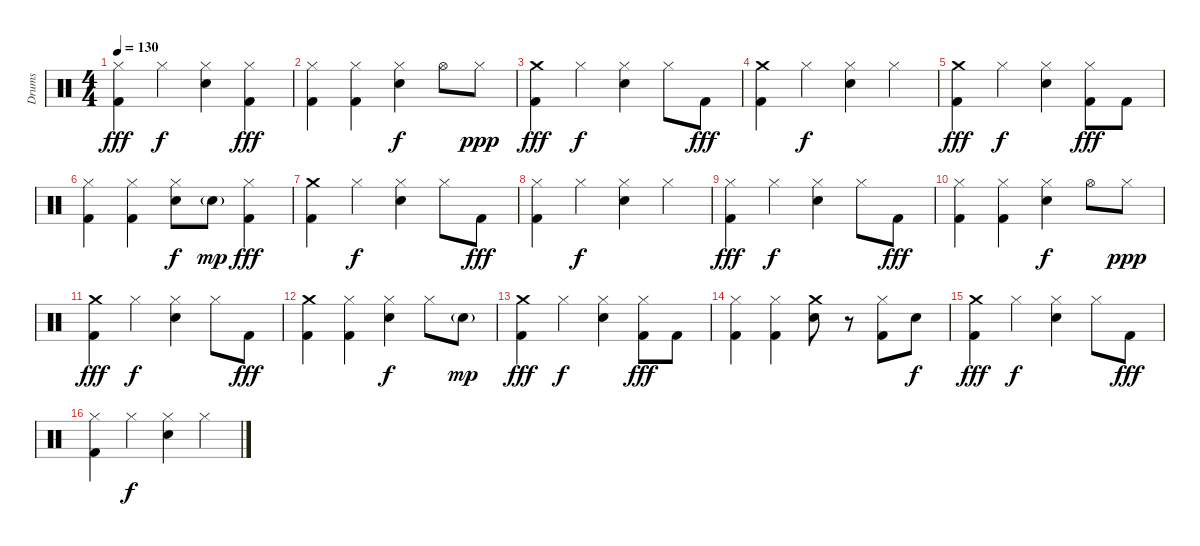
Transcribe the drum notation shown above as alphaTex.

\track ("Drums" "Drums") {instrument percussion}
\staff {score}
\articulation defaults
\ts (4 4)
\tempo 130
\clef neutral
\ks c
("Hi-Hat (closed)" "Kick (hit) 2").4{dy fff} "Hi-Hat (closed)".4{dy f} ("Hi-Hat (closed)" "Electric Snare (hit)").4 ("Hi-Hat (closed)" "Kick (hit) 2").4{dy fff} |
("Hi-Hat (closed)" "Kick (hit) 2").4 ("Hi-Hat (closed)" "Kick (hit) 2").4 ("Hi-Hat (closed)" "Electric Snare (hit)").4{dy f} "Hi-Hat (open)".8 "Hi-Hat (closed)".8{dy ppp} |
("Crash medium (hit)" "Kick (hit) 2").4{dy fff} "Hi-Hat (closed)".4{dy f} ("Hi-Hat (closed)" "Electric Snare (hit)").4 "Hi-Hat (closed)".8 "Kick (hit) 2".8{dy fff} |
("Crash medium (hit)" "Kick (hit) 2").4 "Hi-Hat (closed)".4{dy f} ("Hi-Hat (closed)" "Electric Snare (hit)").4 "Hi-Hat (closed)".4 |
("Crash medium (hit)" "Kick (hit) 2").4{dy fff} "Hi-Hat (closed)".4{dy f} ("Hi-Hat (closed)" "Electric Snare (hit)").4 ("Hi-Hat (closed)" "Kick (hit) 2").8{dy fff} "Kick (hit) 2".8 |
("Hi-Hat (closed)" "Kick (hit) 2").4 ("Hi-Hat (closed)" "Kick (hit) 2").4 ("Hi-Hat (closed)" "Electric Snare (hit)").8{dy f} "Electric Snare (hit)"{g}.8{dy mp} ("Hi-Hat (closed)" "Kick (hit) 2").4{dy fff} |
("Crash medium (hit)" "Kick (hit) 2").4 "Hi-Hat (closed)".4{dy f} ("Hi-Hat (closed)" "Electric Snare (hit)").4 "Hi-Hat (closed)".8 "Kick (hit) 2".8{dy fff} |
("Hi-Hat (closed)" "Kick (hit) 2").4 "Hi-Hat (closed)".4{dy f} ("Hi-Hat (closed)" "Electric Snare (hit)").4 "Hi-Hat (closed)".4 |
("Hi-Hat (closed)" "Kick (hit) 2").4{dy fff} "Hi-Hat (closed)".4{dy f} ("Hi-Hat (closed)" "Electric Snare (hit)").4 "Hi-Hat (closed)".8 "Kick (hit) 2".8{dy fff} |
("Hi-Hat (closed)" "Kick (hit) 2").4 ("Hi-Hat (closed)" "Kick (hit) 2").4 ("Hi-Hat (closed)" "Electric Snare (hit)").4{dy f} "Hi-Hat (open)".8 "Hi-Hat (closed)".8{dy ppp} |
("Crash medium (hit)" "Kick (hit) 2").4{dy fff} "Hi-Hat (closed)".4{dy f} ("Hi-Hat (closed)" "Electric Snare (hit)").4 "Hi-Hat (closed)".8 "Kick (hit) 2".8{dy fff} |
("Crash medium (hit)" "Kick (hit) 2").4 ("Hi-Hat (closed)" "Kick (hit) 2").4 ("Hi-Hat (closed)" "Electric Snare (hit)").4{dy f} "Hi-Hat (closed)".8 "Electric Snare (hit)"{g}.8{dy mp} |
("Crash medium (hit)" "Kick (hit) 2").4{dy fff} "Hi-Hat (closed)".4{dy f} ("Hi-Hat (closed)" "Electric Snare (hit)").4 ("Hi-Hat (closed)" "Kick (hit) 2").8{dy fff} "Kick (hit) 2".8 |
("Hi-Hat (closed)" "Kick (hit) 2").4 ("Hi-Hat (closed)" "Kick (hit) 2").4 ("Crash medium (hit)" "Electric Snare (hit)").8 r.8 ("Hi-Hat (closed)" "Kick (hit) 2").8 "Electric Snare (hit)".8{dy f} |
("Crash medium (hit)" "Kick (hit) 2").4{dy fff} "Hi-Hat (closed)".4{dy f} ("Hi-Hat (closed)" "Electric Snare (hit)").4 "Hi-Hat (closed)".8 "Kick (hit) 2".8{dy fff} |
("Hi-Hat (closed)" "Kick (hit) 2").4 "Hi-Hat (closed)".4{dy f} ("Hi-Hat (closed)" "Electric Snare (hit)").4 "Hi-Hat (closed)".4
